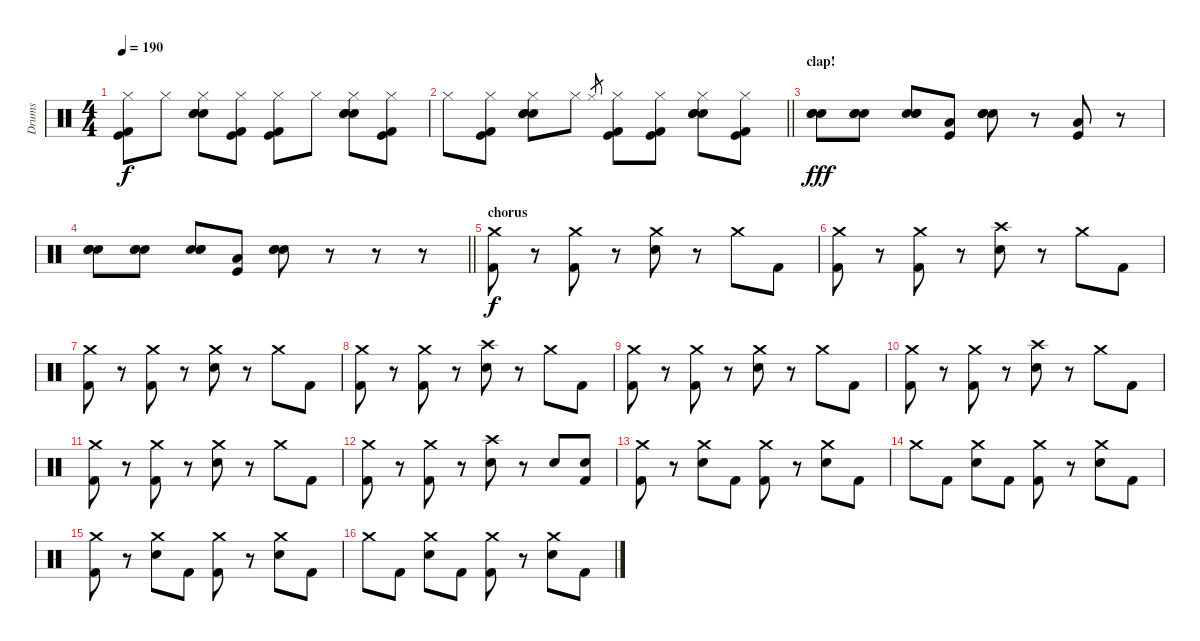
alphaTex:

\track ("Drums" "Drums") {instrument percussion}
\staff {score}
\articulation defaults
\ts (4 4)
\tempo 190
\clef neutral
\ks c
("Hi-Hat (closed)" "Kick (hit)" "Kick (hit) 2").8{dy f} "Hi-Hat (closed)".8 ("Hand Clap (hit)" "Hi-Hat (closed)" "Electric Snare (hit)" "Snare (hit) 2").8 ("Hi-Hat (closed)" "Kick (hit)" "Kick (hit) 2").8 ("Hi-Hat (closed)" "Kick (hit)" "Kick (hit) 2").8 "Hi-Hat (closed)".8 ("Hand Clap (hit)" "Hi-Hat (closed)" "Electric Snare (hit)" "Snare (hit) 2").8 ("Hi-Hat (closed)" "Kick (hit)" "Kick (hit) 2").8 |
\barLineRight lightlight "Hi-Hat (closed)".8
("Hi-Hat (closed)" "Kick (hit)" "Kick (hit) 2").8 ("Electric Snare (hit)" "Hi-Hat (closed)" "Hand Clap (hit)" "Snare (hit) 2").8 "Hi-Hat (closed)".8 "Hi-Hat (closed)".8{gr} ("Hi-Hat (closed)" "Kick (hit)" "Kick (hit) 2").8 ("Hi-Hat (closed)" "Kick (hit)" "Kick (hit) 2").8 ("Electric Snare (hit)" "Hi-Hat (closed)" "Hand Clap (hit)" "Snare (hit) 2").8 ("Hi-Hat (closed)" "Kick (hit)" "Kick (hit) 2").8 |
\section ("" "clap!")
("Hand Clap (hit)" "Snare (hit) 2" "Hand Clap (hit)").8{dy fff} ("Hand Clap (hit)" "Snare (hit) 2" "Hand Clap (hit)").8 ("Hand Clap (hit)" "Snare (hit) 2" "Hand Clap (hit)").8 ("Low Floor Tom (hit)" "Kick (hit)").8 ("Hand Clap (hit)" "Snare (hit) 2" "Hand Clap (hit)").8 r.8 ("Low Floor Tom (hit)" "Kick (hit)").8 r.8 |
\barLineRight lightlight
("Hand Clap (hit)" "Snare (hit) 2" "Hand Clap (hit)").8 ("Hand Clap (hit)" "Snare (hit) 2" "Hand Clap (hit)").8 ("Hand Clap (hit)" "Snare (hit) 2" "Hand Clap (hit)").8 ("Low Floor Tom (hit)" "Kick (hit)").8 ("Hand Clap (hit)" "Snare (hit) 2" "Hand Clap (hit)").8 r.8 r.8 r.8 |
\section ("" "chorus")
("Crash medium (hit)" "Kick (hit) 2").8{dy f} r.8 ("Crash medium (hit)" "Kick (hit) 2").8 r.8 ("Crash medium (hit)" "Electric Snare (hit)").8 r.8 "Crash medium (hit)".8 "Kick (hit) 2".8 |
("Crash medium (hit)" "Kick (hit) 2").8 r.8 ("Crash medium (hit)" "Kick (hit) 2").8 r.8 ("Crash high (hit)" "Electric Snare (hit)").8 r.8 "Crash medium (hit)".8 "Kick (hit) 2".8 |
("Crash medium (hit)" "Kick (hit) 2").8 r.8 ("Crash medium (hit)" "Kick (hit) 2").8 r.8 ("Crash medium (hit)" "Electric Snare (hit)").8 r.8 "Crash medium (hit)".8 "Kick (hit) 2".8 |
("Crash medium (hit)" "Kick (hit) 2").8 r.8 ("Crash medium (hit)" "Kick (hit) 2").8 r.8 ("Crash high (hit)" "Electric Snare (hit)").8 r.8 "Crash medium (hit)".8 "Kick (hit) 2".8 |
("Crash medium (hit)" "Kick (hit) 2").8 r.8 ("Crash medium (hit)" "Kick (hit) 2").8 r.8 ("Crash medium (hit)" "Electric Snare (hit)").8 r.8 "Crash medium (hit)".8 "Kick (hit) 2".8 |
("Crash medium (hit)" "Kick (hit) 2").8 r.8 ("Crash medium (hit)" "Kick (hit) 2").8 r.8 ("Crash high (hit)" "Electric Snare (hit)").8 r.8 "Crash medium (hit)".8 "Kick (hit) 2".8 |
("Crash medium (hit)" "Kick (hit) 2").8 r.8 ("Crash medium (hit)" "Kick (hit) 2").8 r.8 ("Crash medium (hit)" "Electric Snare (hit)").8 r.8 "Crash medium (hit)".8 "Kick (hit) 2".8 |
("Crash medium (hit)" "Kick (hit) 2").8 r.8 ("Crash medium (hit)" "Kick (hit) 2").8 r.8 ("Crash high (hit)" "Electric Snare (hit)").8 r.8 "Electric Snare (hit)".8 ("Electric Snare (hit)" "Kick (hit) 2").8 |
("Crash medium (hit)" "Kick (hit) 2").8 r.8 ("Crash medium (hit)" "Electric Snare (hit)").8 "Kick (hit) 2".8 ("Crash medium (hit)" "Kick (hit) 2").8 r.8 ("Crash medium (hit)" "Electric Snare (hit)").8 "Kick (hit) 2".8 |
"Crash medium (hit)".8 "Kick (hit) 2".8 ("Crash medium (hit)" "Electric Snare (hit)").8 "Kick (hit) 2".8 ("Crash medium (hit)" "Kick (hit) 2").8 r.8 ("Crash medium (hit)" "Electric Snare (hit)").8 "Kick (hit) 2".8 |
("Crash medium (hit)" "Kick (hit) 2").8 r.8 ("Crash medium (hit)" "Electric Snare (hit)").8 "Kick (hit) 2".8 ("Crash medium (hit)" "Kick (hit) 2").8 r.8 ("Crash medium (hit)" "Electric Snare (hit)").8 "Kick (hit) 2".8 |
"Crash medium (hit)".8 "Kick (hit) 2".8 ("Crash medium (hit)" "Electric Snare (hit)").8 "Kick (hit) 2".8 ("Crash medium (hit)" "Kick (hit) 2").8 r.8 ("Crash medium (hit)" "Electric Snare (hit)").8 "Kick (hit) 2".8
